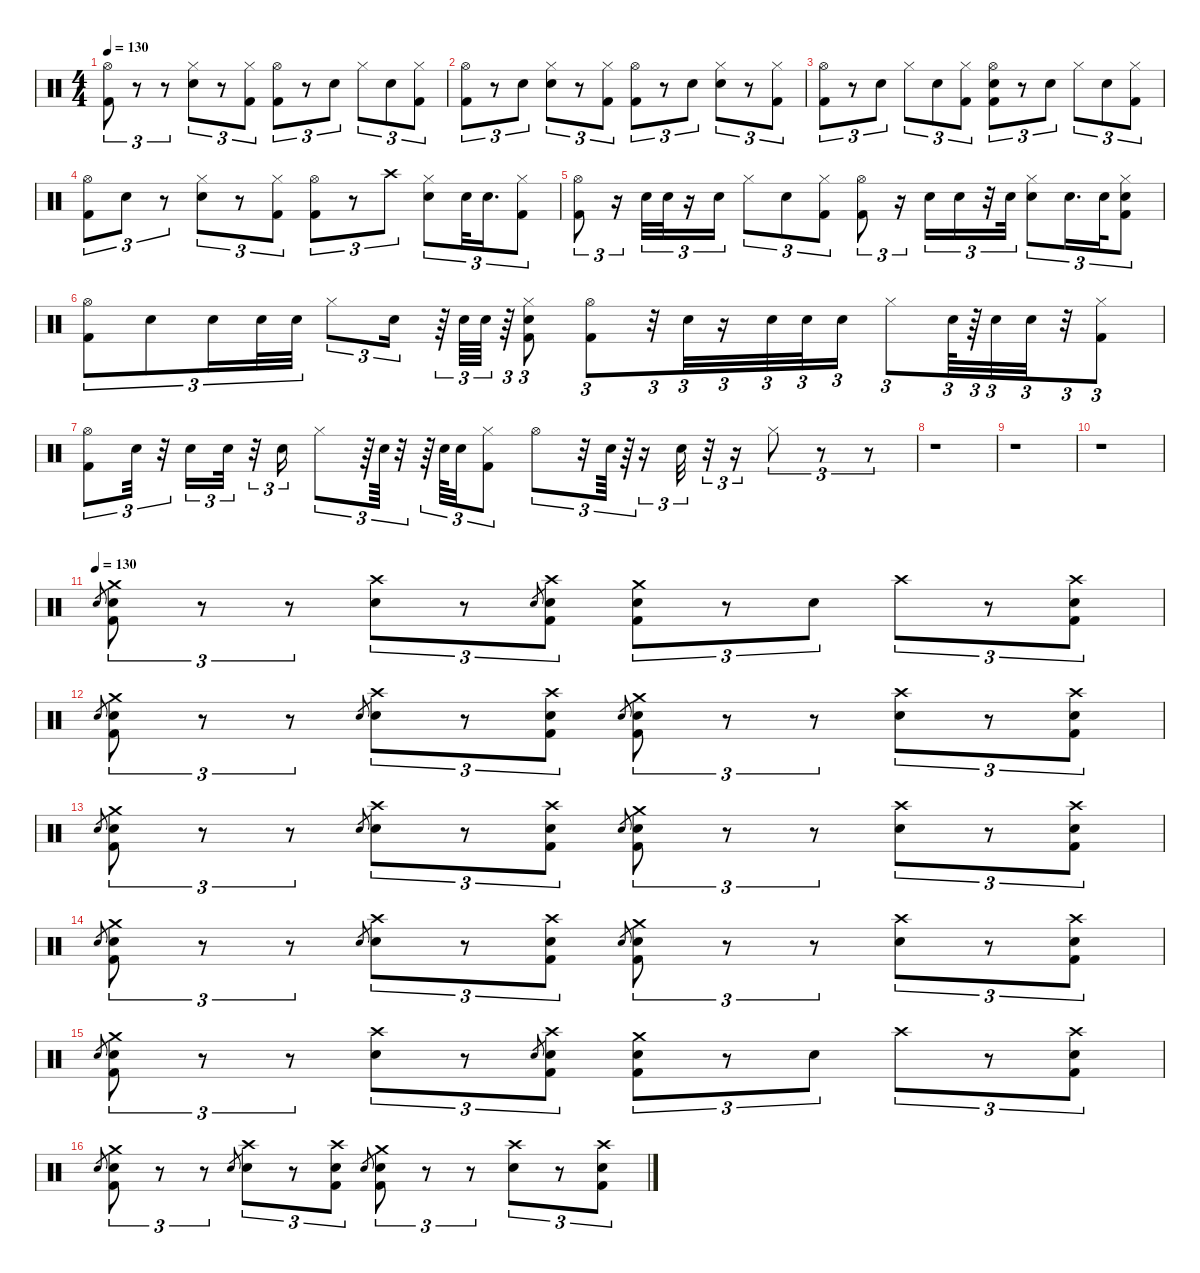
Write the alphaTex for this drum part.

\defaultSystemsLayout 4
\hideDynamics
\bracketExtendMode nobrackets
\singleTrackTrackNamePolicy hidden
\multiTrackTrackNamePolicy hidden
\firstSystemTrackNameMode fullname
\firstSystemTrackNameOrientation horizontal
\otherSystemsTrackNameOrientation horizontal
\track ("Drums" "drm.") {instrument percussion}
\staff {score}
\articulation defaults
\ts (4 4)
\tempo 130
\clef neutral
\ks c
("Hi-Hat (open)" "Kick (hit) 2").8{tu (3 2) dy f beam Down} r.8{tu (3 2) beam Down} r.8{tu (3 2) beam Down} ("Hi-Hat (closed)" "Snare (hit) 2").8{tu (3 2) beam Down} r.8{tu (3 2) beam Down} ("Hi-Hat (closed)" "Kick (hit) 2").8{tu (3 2) beam Down} ("Hi-Hat (open)" "Kick (hit) 2").8{tu (3 2) beam Down} r.8{tu (3 2) beam Down} "Snare (hit) 2".8{tu (3 2) beam Down} "Hi-Hat (closed)".8{tu (3 2) beam Down} "Snare (hit) 2".8{tu (3 2) beam Down} ("Hi-Hat (closed)" "Kick (hit) 2").8{tu (3 2) beam Down} |
("Hi-Hat (open)" "Kick (hit) 2").8{tu (3 2) beam Down} r.8{tu (3 2) beam Down} "Snare (hit) 2".8{tu (3 2) beam Down} ("Hi-Hat (closed)" "Snare (hit) 2").8{tu (3 2) beam Down} r.8{tu (3 2) beam Down} ("Hi-Hat (closed)" "Kick (hit) 2").8{tu (3 2) beam Down} ("Hi-Hat (open)" "Kick (hit) 2").8{tu (3 2) beam Down} r.8{tu (3 2) beam Down} "Snare (hit) 2".8{tu (3 2) beam Down} ("Hi-Hat (closed)" "Snare (hit) 2").8{tu (3 2) beam Down} r.8{tu (3 2) beam Down} ("Hi-Hat (closed)" "Kick (hit) 2").8{tu (3 2) beam Down} |
("Hi-Hat (open)" "Kick (hit) 2").8{tu (3 2) beam Down} r.8{tu (3 2) beam Down} "Snare (hit) 2".8{tu (3 2) beam Down} "Hi-Hat (closed)".8{tu (3 2) beam Down} "Snare (hit) 2".8{tu (3 2) beam Down} ("Hi-Hat (closed)" "Kick (hit) 2").8{tu (3 2) beam Down} ("Hi-Hat (open)" "Snare (hit) 2" "Kick (hit) 2").8{tu (3 2) beam Down} r.8{tu (3 2) beam Down} "Snare (hit) 2".8{tu (3 2) beam Down} "Hi-Hat (closed)".8{tu (3 2) beam Down} "Snare (hit) 2".8{tu (3 2) beam Down} ("Hi-Hat (closed)" "Kick (hit) 2").8{tu (3 2) beam Down} |
("Hi-Hat (open)" "Kick (hit) 2").8{tu (3 2) beam Down} "Snare (hit) 2".8{tu (3 2) beam Down} r.8{tu (3 2) beam Down} ("Hi-Hat (closed)" "Snare (hit) 2").8{tu (3 2) beam Down} r.8{tu (3 2) beam Down} ("Hi-Hat (closed)" "Kick (hit) 2").8{tu (3 2) beam Down} ("Hi-Hat (open)" "Kick (hit) 2").8{tu (3 2) beam Down} r.8{tu (3 2) beam Down} "Crash high (hit)".8{tu (3 2) beam Down} ("Hi-Hat (closed)" "Snare (hit) 2").8{tu (3 2) beam Down} "Snare (hit) 2".32{tu (3 2) beam Down} "Snare (hit) 2".16{d tu (3 2) beam Down} ("Hi-Hat (closed)" "Kick (hit) 2").8{tu (3 2) beam Down} |
("Hi-Hat (open)" "Kick (hit) 2").8{tu (3 2) beam Down} r.16{tu (3 2) beam Down} "Snare (hit) 2".32{tu (3 2) beam Down} "Snare (hit) 2".32{tu (3 2) beam Down} r.16{tu (3 2) beam Down} "Snare (hit) 2".16{tu (3 2) beam Down} "Hi-Hat (closed)".8{tu (3 2) beam Down} "Snare (hit) 2".8{tu (3 2) beam Down} ("Hi-Hat (closed)" "Kick (hit) 2").8{tu (3 2) beam Down} ("Hi-Hat (open)" "Kick (hit) 2").8{tu (3 2) beam Down} r.16{tu (3 2) beam Down} "Snare (hit) 2".16{tu (3 2) beam Down} "Snare (hit) 2".16{tu (3 2) beam Down} r.32{tu (3 2) beam Down} "Snare (hit) 2".32{tu (3 2) beam Down} ("Hi-Hat (closed)" "Snare (hit) 2").8{tu (3 2) beam Down} "Snare (hit) 2".16{d tu (3 2) beam Down} "Snare (hit) 2".32{tu (3 2) beam Down} ("Hi-Hat (closed)" "Snare (hit) 2" "Kick (hit) 2").8{tu (3 2) beam Down} |
("Hi-Hat (open)" "Kick (hit) 2").8{tu (3 2) beam Down} "Snare (hit) 2".8{tu (3 2) beam Down} "Snare (hit) 2".16{tu (3 2) beam Down} "Snare (hit) 2".32{tu (3 2) beam Down} "Snare (hit) 2".32{tu (3 2) beam Down} "Hi-Hat (closed)".8{tu (3 2) beam Down} "Snare (hit) 2".16{tu (3 2) beam Down} r.64{tu (3 2) beam Down} "Snare (hit) 2".64{tu (3 2) beam Down} "Snare (hit) 2".64{tu (3 2) beam Down} r.64{tu (3 2) beam Down} ("Hi-Hat (closed)" "Snare (hit) 2" "Kick (hit) 2").8{tu (3 2) beam Down} ("Hi-Hat (open)" "Kick (hit) 2").8{tu (3 2) beam Down} r.32{tu (3 2) beam Down} "Snare (hit) 2".32{tu (3 2) beam Down} r.16{tu (3 2) beam Down} "Snare (hit) 2".32{tu (3 2) beam Down} "Snare (hit) 2".32{tu (3 2) beam Down} "Snare (hit) 2".16{tu (3 2) beam Down} "Hi-Hat (closed)".8{tu (3 2) beam Down} "Snare (hit) 2".64{tu (3 2) beam Down} r.64{tu (3 2) beam Down} "Snare (hit) 2".32{tu (3 2) beam Down} "Snare (hit) 2".32{tu (3 2) beam Down} r.32{tu (3 2) beam Down} ("Hi-Hat (closed)" "Kick (hit) 2").8{tu (3 2) beam Down} |
("Hi-Hat (open)" "Kick (hit) 2").8{tu (3 2) beam Down} "Snare (hit) 2".32{tu (3 2) beam Down} r.32{tu (3 2) beam Down} "Snare (hit) 2".16{tu (3 2) beam Down} "Snare (hit) 2".32{tu (3 2) beam Down} r.32{tu (3 2) beam Down} "Snare (hit) 2".16{tu (3 2) beam Down} "Hi-Hat (closed)".8{tu (3 2) beam Down} r.64{tu (3 2) beam Down} "Snare (hit) 2".64{tu (3 2) beam Down} r.32{tu (3 2) beam Down} r.64{tu (3 2) beam Down} "Snare (hit) 2".64{tu (3 2) beam Down} "Snare (hit) 2".32{tu (3 2) beam Down} ("Hi-Hat (closed)" "Kick (hit) 2").8{tu (3 2) beam Down} "Hi-Hat (open)".8{tu (3 2) beam Down} r.32{tu (3 2) beam Down} "Snare (hit) 2".64{tu (3 2) beam Down} r.64{tu (3 2) beam Down} r.16{tu (3 2) beam Down} "Snare (hit) 2".32{tu (3 2) beam Down} r.32{tu (3 2) beam Down} r.16{tu (3 2) beam Down} "Hi-Hat (closed)".8{tu (3 2) beam Down} r.8{tu (3 2) beam Down} r.8{tu (3 2) beam Down} |
r.1{beam Down} |
r.1{beam Down} |
r.1{beam Down} |
\tempo (130)
"Snare (hit) 2".8{gr dy ppp beam Up} ("Crash medium (hit)" "Snare (hit) 2" "Kick (hit) 2").8{tu (3 2) dy f beam Down} r.8{tu (3 2) beam Down} r.8{tu (3 2) beam Down} ("Crash high (hit)" "Snare (hit) 2").8{tu (3 2) beam Down} r.8{tu (3 2) beam Down} "Snare (hit) 2".8{gr dy ppp beam Up} ("Crash high (hit)" "Snare (hit) 2" "Kick (hit) 2").8{tu (3 2) dy f beam Down} ("Crash medium (hit)" "Snare (hit) 2" "Kick (hit) 2").8{tu (3 2) beam Down} r.8{tu (3 2) beam Down} "Snare (hit) 2".8{tu (3 2) beam Down} "Crash high (hit)".8{tu (3 2) beam Down} r.8{tu (3 2) beam Down} ("Crash high (hit)" "Snare (hit) 2" "Kick (hit) 2").8{tu (3 2) beam Down} |
"Snare (hit) 2".8{gr dy ppp beam Up} ("Crash medium (hit)" "Snare (hit) 2" "Kick (hit) 2").8{tu (3 2) dy f beam Down} r.8{tu (3 2) beam Down} r.8{tu (3 2) beam Down} "Snare (hit) 2".8{gr dy ppp beam Up} ("Crash high (hit)" "Snare (hit) 2").8{tu (3 2) dy f beam Down} r.8{tu (3 2) beam Down} ("Crash high (hit)" "Snare (hit) 2" "Kick (hit) 2").8{tu (3 2) beam Down} "Snare (hit) 2".8{gr dy ppp beam Up} ("Crash medium (hit)" "Snare (hit) 2" "Kick (hit) 2").8{tu (3 2) dy f beam Down} r.8{tu (3 2) beam Down} r.8{tu (3 2) beam Down} ("Crash high (hit)" "Snare (hit) 2").8{tu (3 2) beam Down} r.8{tu (3 2) beam Down} ("Crash high (hit)" "Snare (hit) 2" "Kick (hit) 2").8{tu (3 2) beam Down} |
"Snare (hit) 2".8{gr dy ppp beam Up} ("Crash medium (hit)" "Snare (hit) 2" "Kick (hit) 2").8{tu (3 2) dy f beam Down} r.8{tu (3 2) beam Down} r.8{tu (3 2) beam Down} "Snare (hit) 2".8{gr dy ppp beam Up} ("Crash high (hit)" "Snare (hit) 2").8{tu (3 2) dy f beam Down} r.8{tu (3 2) beam Down} ("Crash high (hit)" "Snare (hit) 2" "Kick (hit) 2").8{tu (3 2) beam Down} "Snare (hit) 2".8{gr dy ppp beam Up} ("Crash medium (hit)" "Snare (hit) 2" "Kick (hit) 2").8{tu (3 2) dy f beam Down} r.8{tu (3 2) beam Down} r.8{tu (3 2) beam Down} ("Crash high (hit)" "Snare (hit) 2").8{tu (3 2) beam Down} r.8{tu (3 2) beam Down} ("Crash high (hit)" "Snare (hit) 2" "Kick (hit) 2").8{tu (3 2) beam Down} |
"Snare (hit) 2".8{gr dy ppp beam Up} ("Crash medium (hit)" "Snare (hit) 2" "Kick (hit) 2").8{tu (3 2) dy f beam Down} r.8{tu (3 2) beam Down} r.8{tu (3 2) beam Down} "Snare (hit) 2".8{gr dy ppp beam Up} ("Crash high (hit)" "Snare (hit) 2").8{tu (3 2) dy f beam Down} r.8{tu (3 2) beam Down} ("Crash high (hit)" "Snare (hit) 2" "Kick (hit) 2").8{tu (3 2) beam Down} "Snare (hit) 2".8{gr dy ppp beam Up} ("Crash medium (hit)" "Snare (hit) 2" "Kick (hit) 2").8{tu (3 2) dy f beam Down} r.8{tu (3 2) beam Down} r.8{tu (3 2) beam Down} ("Crash high (hit)" "Snare (hit) 2").8{tu (3 2) beam Down} r.8{tu (3 2) beam Down} ("Crash high (hit)" "Snare (hit) 2" "Kick (hit) 2").8{tu (3 2) beam Down} |
"Snare (hit) 2".8{gr dy ppp beam Up} ("Crash medium (hit)" "Snare (hit) 2" "Kick (hit) 2").8{tu (3 2) dy f beam Down} r.8{tu (3 2) beam Down} r.8{tu (3 2) beam Down} ("Crash high (hit)" "Snare (hit) 2").8{tu (3 2) beam Down} r.8{tu (3 2) beam Down} "Snare (hit) 2".8{gr dy ppp beam Up} ("Crash high (hit)" "Snare (hit) 2" "Kick (hit) 2").8{tu (3 2) dy f beam Down} ("Crash medium (hit)" "Snare (hit) 2" "Kick (hit) 2").8{tu (3 2) beam Down} r.8{tu (3 2) beam Down} "Snare (hit) 2".8{tu (3 2) beam Down} "Crash high (hit)".8{tu (3 2) beam Down} r.8{tu (3 2) beam Down} ("Crash high (hit)" "Snare (hit) 2" "Kick (hit) 2").8{tu (3 2) beam Down} |
"Snare (hit) 2".8{gr dy ppp beam Up} ("Crash medium (hit)" "Snare (hit) 2" "Kick (hit) 2").8{tu (3 2) dy f beam Down} r.8{tu (3 2) beam Down} r.8{tu (3 2) beam Down} "Snare (hit) 2".8{gr dy ppp beam Up} ("Crash high (hit)" "Snare (hit) 2").8{tu (3 2) dy f beam Down} r.8{tu (3 2) beam Down} ("Crash high (hit)" "Snare (hit) 2" "Kick (hit) 2").8{tu (3 2) beam Down} "Snare (hit) 2".8{gr dy ppp beam Up} ("Crash medium (hit)" "Snare (hit) 2" "Kick (hit) 2").8{tu (3 2) dy f beam Down} r.8{tu (3 2) beam Down} r.8{tu (3 2) beam Down} ("Crash high (hit)" "Snare (hit) 2").8{tu (3 2) beam Down} r.8{tu (3 2) beam Down} ("Crash high (hit)" "Snare (hit) 2" "Kick (hit) 2").8{tu (3 2) beam Down}
